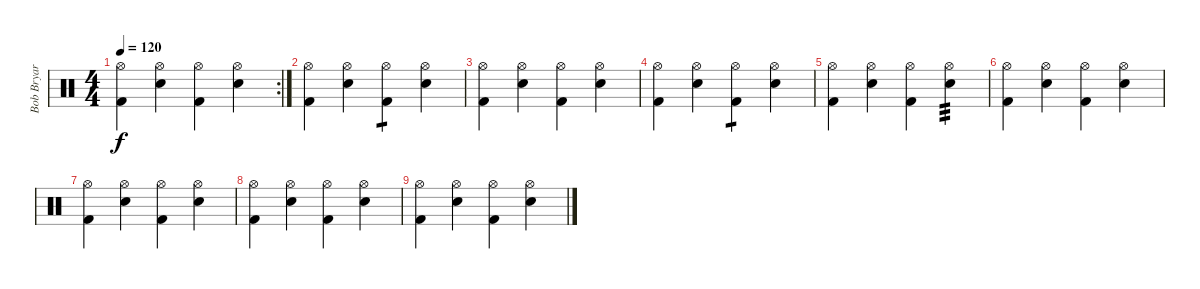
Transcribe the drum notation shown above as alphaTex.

\track ("Bob Bryar [Drums]" "Bob Bryar ") {instrument percussion}
\staff {score}
\articulation defaults
\rc 2
\ts (4 4)
\tempo 120
\clef neutral
\ks c
("Hi-Hat (open)" "Kick (hit) 2").4{dy f} ("Hi-Hat (open)" "Electric Snare (hit)").4 ("Hi-Hat (open)" "Kick (hit) 2").4 ("Hi-Hat (open)" "Electric Snare (hit)").4 |
("Hi-Hat (open)" "Kick (hit) 2").4{volume 0} ("Hi-Hat (open)" "Electric Snare (hit)").4 ("Hi-Hat (open)" "Kick (hit) 2").4{tp 1} ("Hi-Hat (open)" "Electric Snare (hit)").4 |
("Hi-Hat (open)" "Kick (hit) 2").4 ("Hi-Hat (open)" "Electric Snare (hit)").4 ("Hi-Hat (open)" "Kick (hit) 2").4 ("Hi-Hat (open)" "Electric Snare (hit)").4 |
("Hi-Hat (open)" "Kick (hit) 2").4 ("Hi-Hat (open)" "Electric Snare (hit)").4 ("Hi-Hat (open)" "Kick (hit) 2").4{tp 1} ("Hi-Hat (open)" "Electric Snare (hit)").4 |
("Hi-Hat (open)" "Kick (hit) 2").4 ("Hi-Hat (open)" "Electric Snare (hit)").4 ("Hi-Hat (open)" "Kick (hit) 2").4 ("Hi-Hat (open)" "Electric Snare (hit)").4{tp 3} |
("Hi-Hat (open)" "Kick (hit) 2").4 ("Hi-Hat (open)" "Electric Snare (hit)").4 ("Hi-Hat (open)" "Kick (hit) 2").4 ("Hi-Hat (open)" "Electric Snare (hit)").4 |
("Hi-Hat (open)" "Kick (hit) 2").4 ("Hi-Hat (open)" "Electric Snare (hit)").4 ("Hi-Hat (open)" "Kick (hit) 2").4 ("Hi-Hat (open)" "Electric Snare (hit)").4 |
("Hi-Hat (open)" "Kick (hit) 2").4 ("Hi-Hat (open)" "Electric Snare (hit)").4 ("Hi-Hat (open)" "Kick (hit) 2").4 ("Hi-Hat (open)" "Electric Snare (hit)").4 |
("Hi-Hat (open)" "Kick (hit) 2").4 ("Hi-Hat (open)" "Electric Snare (hit)").4 ("Hi-Hat (open)" "Kick (hit) 2").4 ("Hi-Hat (open)" "Electric Snare (hit)").4
